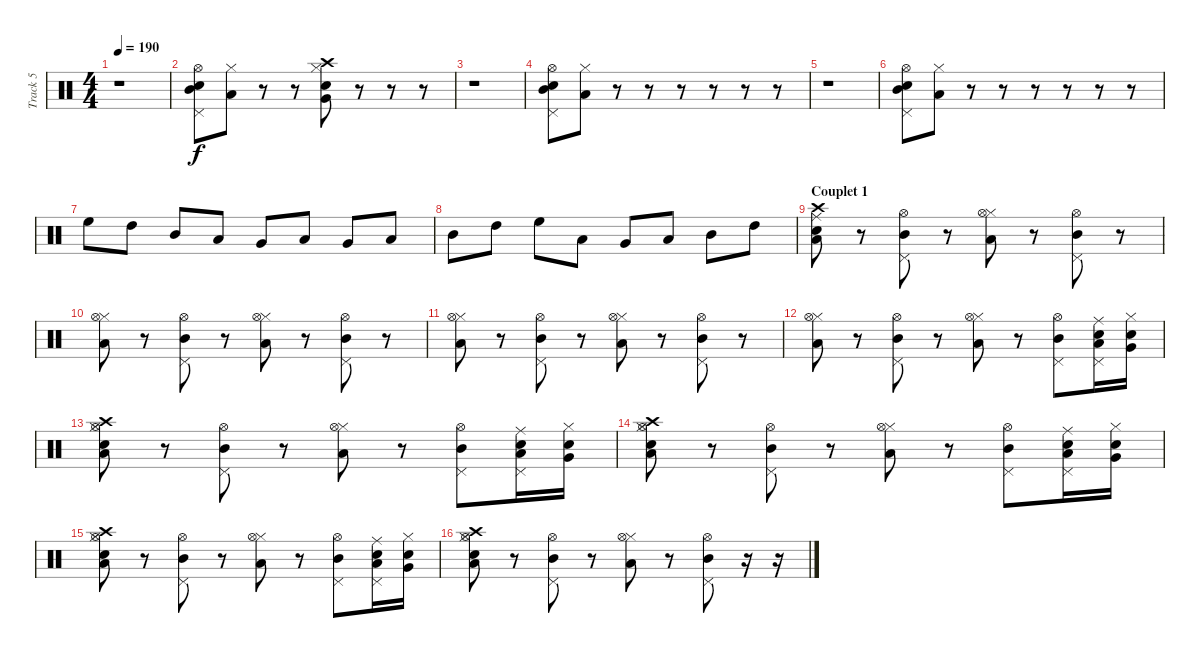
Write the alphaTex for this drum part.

\track ("Track 5" "Track 5") {instrument percussion}
\staff {score}
\articulation defaults
\ts (4 4)
\tempo 190
\clef neutral
\ks c
r.1{dy f} |
("Mid Tom (hit)" "Pedal Hi-Hat (hit)" "Snare (hit) 2" "Hi-Hat (open)").8 ("Hi-Hat (closed)" "Low Tom (hit)").8 r.8 r.8 ("Very Low Tom (hit)" "Hi-Hat (closed)" "Electric Snare (hit)" "Crash high (hit)").8 r.8 r.8 r.8 |
r.1 |
("Mid Tom (hit)" "Pedal Hi-Hat (hit)" "Snare (hit) 2" "Hi-Hat (open)").8 ("Hi-Hat (closed)" "Low Tom (hit)").8 r.8 r.8 r.8 r.8 r.8 r.8 |
r.1 |
("Mid Tom (hit)" "Pedal Hi-Hat (hit)" "Snare (hit) 2" "Hi-Hat (open)").8 ("Hi-Hat (closed)" "Low Tom (hit)").8 r.8 r.8 r.8 r.8 r.8 r.8 |
"High Floor Tom (hit)".8 "High Tom (hit)".8 "Mid Tom (hit)".8 "Low Tom (hit)".8 "Very Low Tom (hit)".8 "Low Floor Tom (hit)".8 "Very Low Tom (hit)".8 "Low Tom (hit)".8 |
"Mid Tom (hit)".8 "High Tom (hit)".8 "High Floor Tom (hit)".8 "Low Floor Tom (hit)".8 "Very Low Tom (hit)".8 "Low Tom (hit)".8 "Mid Tom (hit)".8 "High Tom (hit)".8 |
\section ("" "Couplet 1")
("Low Tom (hit)" "Snare (hit) 2" "Crash high (hit)" "Ride (middle)").8 r.8 ("Mid Tom (hit)" "Pedal Hi-Hat (hit)" "Hi-Hat (open)").8 r.8 ("Low Tom (hit)" "Hi-Hat (closed)" "Hi-Hat (open)").8 r.8 ("Mid Tom (hit)" "Pedal Hi-Hat (hit)" "Hi-Hat (open)").8 r.8 |
("Low Tom (hit)" "Hi-Hat (closed)" "Hi-Hat (open)").8 r.8 ("Mid Tom (hit)" "Pedal Hi-Hat (hit)" "Hi-Hat (open)").8 r.8 ("Low Tom (hit)" "Hi-Hat (closed)" "Hi-Hat (open)").8 r.8 ("Mid Tom (hit)" "Pedal Hi-Hat (hit)" "Hi-Hat (open)").8 r.8 |
("Low Tom (hit)" "Hi-Hat (closed)" "Hi-Hat (open)").8 r.8 ("Mid Tom (hit)" "Pedal Hi-Hat (hit)" "Hi-Hat (open)").8 r.8 ("Low Tom (hit)" "Hi-Hat (closed)" "Hi-Hat (open)").8 r.8 ("Mid Tom (hit)" "Pedal Hi-Hat (hit)" "Hi-Hat (open)").8 r.8 |
("Low Tom (hit)" "Hi-Hat (closed)" "Hi-Hat (open)").8 r.8 ("Mid Tom (hit)" "Pedal Hi-Hat (hit)" "Hi-Hat (open)").8 r.8 ("Low Tom (hit)" "Hi-Hat (closed)" "Hi-Hat (open)").8 r.8 ("Mid Tom (hit)" "Pedal Hi-Hat (hit)" "Hi-Hat (open)").8 ("Low Tom (hit)" "Pedal Hi-Hat (hit)" "Ride (middle)" "Electric Snare (hit)").16 ("Very Low Tom (hit)" "Hi-Hat (closed)" "Snare (hit) 2").16 |
("Low Tom (hit)" "Hi-Hat (closed)" "Hi-Hat (open)" "Crash high (hit)" "Electric Snare (hit)").8 r.8 ("Mid Tom (hit)" "Pedal Hi-Hat (hit)" "Hi-Hat (open)").8 r.8 ("Low Tom (hit)" "Hi-Hat (closed)" "Hi-Hat (open)").8 r.8 ("Mid Tom (hit)" "Pedal Hi-Hat (hit)" "Hi-Hat (open)").8 ("Low Tom (hit)" "Pedal Hi-Hat (hit)" "Ride (middle)" "Electric Snare (hit)").16 ("Very Low Tom (hit)" "Hi-Hat (closed)" "Snare (hit) 2").16 |
("Low Tom (hit)" "Hi-Hat (closed)" "Hi-Hat (open)" "Crash high (hit)" "Electric Snare (hit)").8 r.8 ("Mid Tom (hit)" "Pedal Hi-Hat (hit)" "Hi-Hat (open)").8 r.8 ("Low Tom (hit)" "Hi-Hat (closed)" "Hi-Hat (open)").8 r.8 ("Mid Tom (hit)" "Pedal Hi-Hat (hit)" "Hi-Hat (open)").8 ("Low Tom (hit)" "Pedal Hi-Hat (hit)" "Ride (middle)" "Electric Snare (hit)").16 ("Very Low Tom (hit)" "Hi-Hat (closed)" "Snare (hit) 2").16 |
("Low Tom (hit)" "Hi-Hat (closed)" "Hi-Hat (open)" "Crash high (hit)" "Electric Snare (hit)").8 r.8 ("Mid Tom (hit)" "Pedal Hi-Hat (hit)" "Hi-Hat (open)").8 r.8 ("Low Tom (hit)" "Hi-Hat (closed)" "Hi-Hat (open)").8 r.8 ("Mid Tom (hit)" "Pedal Hi-Hat (hit)" "Hi-Hat (open)").8 ("Low Tom (hit)" "Pedal Hi-Hat (hit)" "Ride (middle)" "Electric Snare (hit)").16 ("Very Low Tom (hit)" "Hi-Hat (closed)" "Snare (hit) 2").16 |
("Low Tom (hit)" "Hi-Hat (closed)" "Hi-Hat (open)" "Crash high (hit)" "Electric Snare (hit)").8 r.8 ("Mid Tom (hit)" "Pedal Hi-Hat (hit)" "Hi-Hat (open)").8 r.8 ("Low Tom (hit)" "Hi-Hat (closed)" "Hi-Hat (open)").8 r.8 ("Mid Tom (hit)" "Pedal Hi-Hat (hit)" "Hi-Hat (open)").8 r.16 r.16
